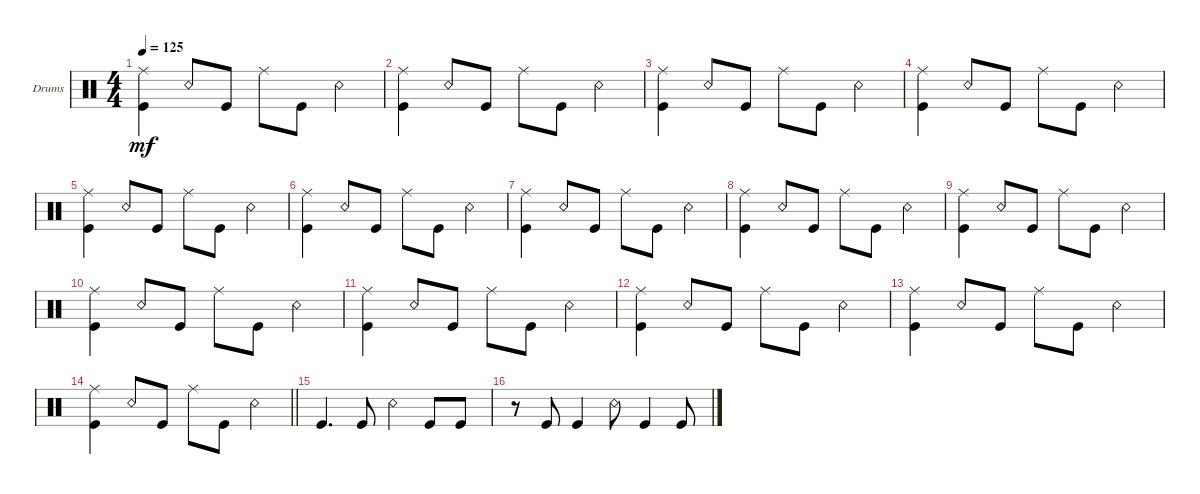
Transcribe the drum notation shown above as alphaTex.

\defaultSystemsLayout 4
\bracketExtendMode groupsimilarinstruments
\firstSystemTrackNameOrientation horizontal
\otherSystemsTrackNameOrientation horizontal
\track ("Drumkit" "Drums") {instrument percussion}
\staff {score}
\articulation defaults
\ts (4 4)
\tempo 125
\clef neutral
\ks c
("Kick (hit)" "Ride (middle)").4{dy mf} "Snare (rim shot)".8 "Kick (hit)".8 "Ride (middle)".8 "Kick (hit)".8 "Snare (rim shot)".4 |
("Kick (hit)" "Ride (middle)").4 "Snare (rim shot)".8 "Kick (hit)".8 "Ride (middle)".8 "Kick (hit)".8 "Snare (rim shot)".4 |
("Kick (hit)" "Ride (middle)").4 "Snare (rim shot)".8 "Kick (hit)".8 "Ride (middle)".8 "Kick (hit)".8 "Snare (rim shot)".4 |
("Kick (hit)" "Ride (middle)").4 "Snare (rim shot)".8 "Kick (hit)".8 "Ride (middle)".8 "Kick (hit)".8 "Snare (rim shot)".4 |
("Kick (hit)" "Ride (middle)").4 "Snare (rim shot)".8 "Kick (hit)".8 "Ride (middle)".8 "Kick (hit)".8 "Snare (rim shot)".4 |
("Kick (hit)" "Ride (middle)").4 "Snare (rim shot)".8 "Kick (hit)".8 "Ride (middle)".8 "Kick (hit)".8 "Snare (rim shot)".4 |
("Kick (hit)" "Ride (middle)").4 "Snare (rim shot)".8 "Kick (hit)".8 "Ride (middle)".8 "Kick (hit)".8 "Snare (rim shot)".4 |
("Kick (hit)" "Ride (middle)").4 "Snare (rim shot)".8 "Kick (hit)".8 "Ride (middle)".8 "Kick (hit)".8 "Snare (rim shot)".4 |
("Kick (hit)" "Ride (middle)").4 "Snare (rim shot)".8 "Kick (hit)".8 "Ride (middle)".8 "Kick (hit)".8 "Snare (rim shot)".4 |
("Kick (hit)" "Ride (middle)").4 "Snare (rim shot)".8 "Kick (hit)".8 "Ride (middle)".8 "Kick (hit)".8 "Snare (rim shot)".4 |
("Kick (hit)" "Ride (middle)").4 "Snare (rim shot)".8 "Kick (hit)".8 "Ride (middle)".8 "Kick (hit)".8 "Snare (rim shot)".4 |
("Kick (hit)" "Ride (middle)").4 "Snare (rim shot)".8 "Kick (hit)".8 "Ride (middle)".8 "Kick (hit)".8 "Snare (rim shot)".4 |
("Kick (hit)" "Ride (middle)").4 "Snare (rim shot)".8 "Kick (hit)".8 "Ride (middle)".8 "Kick (hit)".8 "Snare (rim shot)".4 |
\barLineRight lightlight
("Kick (hit)" "Ride (middle)").4 "Snare (rim shot)".8 "Kick (hit)".8 "Ride (middle)".8 "Kick (hit)".8 "Snare (rim shot)".4 |
"Kick (hit)".4{d} "Kick (hit)".8 "Snare (rim shot)".4 "Kick (hit)".8 "Kick (hit)".8 |
r.8 "Kick (hit)".8 "Kick (hit)".4 "Snare (rim shot)".8 "Kick (hit)".4 "Kick (hit)".8
